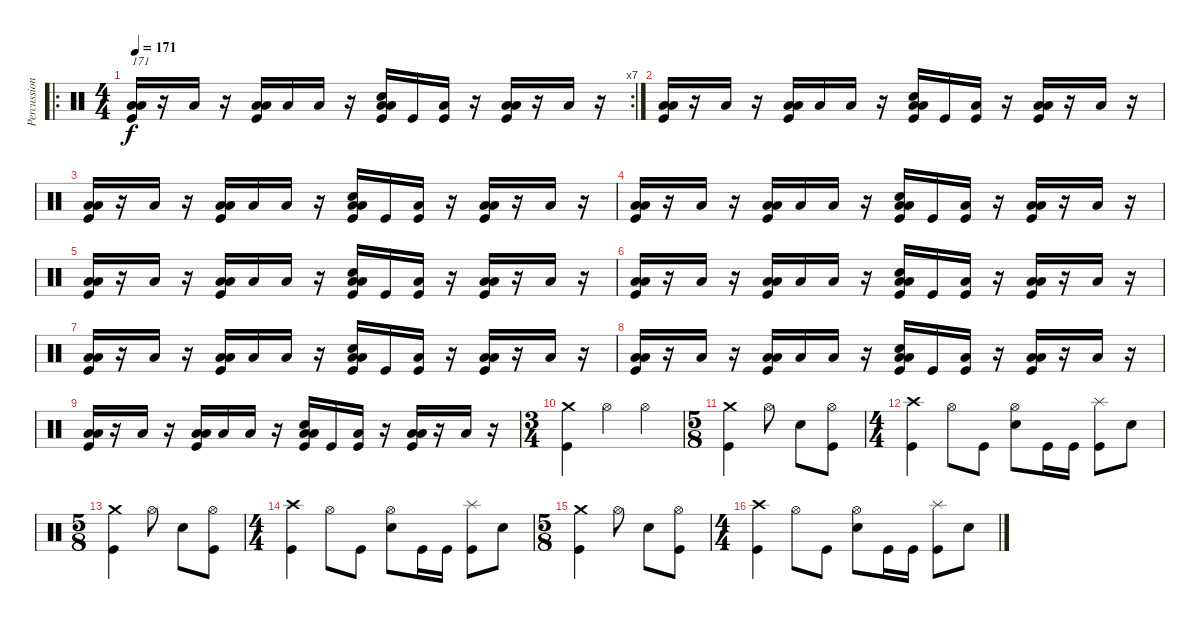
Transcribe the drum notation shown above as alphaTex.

\track ("Percussions" "Percussion") {instrument percussion}
\staff {score}
\articulation defaults
\ro
\rc 7
\ts (4 4)
\tempo 171
\clef neutral
\ks c
("Low Tom (hit)" "Low Floor Tom (hit)" "Kick (hit)").16{txt "171" dy f} r.16 "Low Tom (hit)".16 r.16 ("Low Tom (hit)" "Low Floor Tom (hit)" "Kick (hit)").16 "Low Tom (hit)".16 "Low Tom (hit)".16 r.16 ("Low Tom (hit)" "Snare (hit) 2" "Low Floor Tom (hit)" "Kick (hit)").16 "Kick (hit)".16 ("Low Tom (hit)" "Kick (hit)").16 r.16 ("Low Tom (hit)" "Low Floor Tom (hit)" "Kick (hit)").16 r.16 "Low Tom (hit)".16 r.16 |
("Low Tom (hit)" "Low Floor Tom (hit)" "Kick (hit)").16 r.16 "Low Tom (hit)".16 r.16 ("Low Tom (hit)" "Low Floor Tom (hit)" "Kick (hit)").16 "Low Tom (hit)".16 "Low Tom (hit)".16 r.16 ("Low Tom (hit)" "Snare (hit) 2" "Low Floor Tom (hit)" "Kick (hit)").16 "Kick (hit)".16 ("Low Tom (hit)" "Kick (hit)").16 r.16 ("Low Tom (hit)" "Low Floor Tom (hit)" "Kick (hit)").16 r.16 "Low Tom (hit)".16 r.16 |
("Low Tom (hit)" "Low Floor Tom (hit)" "Kick (hit)").16 r.16 "Low Tom (hit)".16 r.16 ("Low Tom (hit)" "Low Floor Tom (hit)" "Kick (hit)").16 "Low Tom (hit)".16 "Low Tom (hit)".16 r.16 ("Low Tom (hit)" "Snare (hit) 2" "Low Floor Tom (hit)" "Kick (hit)").16 "Kick (hit)".16 ("Low Tom (hit)" "Kick (hit)").16 r.16 ("Low Tom (hit)" "Low Floor Tom (hit)" "Kick (hit)").16 r.16 "Low Tom (hit)".16 r.16 |
("Low Tom (hit)" "Low Floor Tom (hit)" "Kick (hit)").16 r.16 "Low Tom (hit)".16 r.16 ("Low Tom (hit)" "Low Floor Tom (hit)" "Kick (hit)").16 "Low Tom (hit)".16 "Low Tom (hit)".16 r.16 ("Low Tom (hit)" "Snare (hit) 2" "Low Floor Tom (hit)" "Kick (hit)").16 "Kick (hit)".16 ("Low Tom (hit)" "Kick (hit)").16 r.16 ("Low Tom (hit)" "Low Floor Tom (hit)" "Kick (hit)").16 r.16 "Low Tom (hit)".16 r.16 |
("Low Tom (hit)" "Low Floor Tom (hit)" "Kick (hit)").16 r.16 "Low Tom (hit)".16 r.16 ("Low Tom (hit)" "Low Floor Tom (hit)" "Kick (hit)").16 "Low Tom (hit)".16 "Low Tom (hit)".16 r.16 ("Low Tom (hit)" "Snare (hit) 2" "Low Floor Tom (hit)" "Kick (hit)").16 "Kick (hit)".16 ("Low Tom (hit)" "Kick (hit)").16 r.16 ("Low Tom (hit)" "Low Floor Tom (hit)" "Kick (hit)").16 r.16 "Low Tom (hit)".16 r.16 |
("Low Tom (hit)" "Low Floor Tom (hit)" "Kick (hit)").16 r.16 "Low Tom (hit)".16 r.16 ("Low Tom (hit)" "Low Floor Tom (hit)" "Kick (hit)").16 "Low Tom (hit)".16 "Low Tom (hit)".16 r.16 ("Low Tom (hit)" "Snare (hit) 2" "Low Floor Tom (hit)" "Kick (hit)").16 "Kick (hit)".16 ("Low Tom (hit)" "Kick (hit)").16 r.16 ("Low Tom (hit)" "Low Floor Tom (hit)" "Kick (hit)").16 r.16 "Low Tom (hit)".16 r.16 |
("Low Tom (hit)" "Low Floor Tom (hit)" "Kick (hit)").16 r.16 "Low Tom (hit)".16 r.16 ("Low Tom (hit)" "Low Floor Tom (hit)" "Kick (hit)").16 "Low Tom (hit)".16 "Low Tom (hit)".16 r.16 ("Low Tom (hit)" "Snare (hit) 2" "Low Floor Tom (hit)" "Kick (hit)").16 "Kick (hit)".16 ("Low Tom (hit)" "Kick (hit)").16 r.16 ("Low Tom (hit)" "Low Floor Tom (hit)" "Kick (hit)").16 r.16 "Low Tom (hit)".16 r.16 |
("Low Tom (hit)" "Low Floor Tom (hit)" "Kick (hit)").16 r.16 "Low Tom (hit)".16 r.16 ("Low Tom (hit)" "Low Floor Tom (hit)" "Kick (hit)").16 "Low Tom (hit)".16 "Low Tom (hit)".16 r.16 ("Low Tom (hit)" "Snare (hit) 2" "Low Floor Tom (hit)" "Kick (hit)").16 "Kick (hit)".16 ("Low Tom (hit)" "Kick (hit)").16 r.16 ("Low Tom (hit)" "Low Floor Tom (hit)" "Kick (hit)").16 r.16 "Low Tom (hit)".16 r.16 |
("Low Tom (hit)" "Low Floor Tom (hit)" "Kick (hit)").16 r.16 "Low Tom (hit)".16 r.16 ("Low Tom (hit)" "Low Floor Tom (hit)" "Kick (hit)").16 "Low Tom (hit)".16 "Low Tom (hit)".16 r.16 ("Low Tom (hit)" "Snare (hit) 2" "Low Floor Tom (hit)" "Kick (hit)").16 "Kick (hit)".16 ("Low Tom (hit)" "Kick (hit)").16 r.16 ("Low Tom (hit)" "Low Floor Tom (hit)" "Kick (hit)").16 r.16 "Low Tom (hit)".16 r.16 |
\ts (3 4)
("Crash medium (hit)" "Kick (hit)").4 "Hi-Hat (open)".4 "Hi-Hat (open)".4 |
\ts (5 8)
("Crash medium (hit)" "Kick (hit)").4 "Hi-Hat (open)".8 "Snare (hit) 2".8 ("Hi-Hat (open)" "Kick (hit)").8 |
\ts (4 4)
("Crash high (hit)" "Kick (hit)").4 "Hi-Hat (open)".8 "Kick (hit)".8 ("Hi-Hat (open)" "Snare (hit) 2").8 "Kick (hit)".16 "Kick (hit)".16 ("Splash (hit)" "Kick (hit)").8 "Snare (hit) 2".8 |
\ts (5 8)
("Crash medium (hit)" "Kick (hit)").4 "Hi-Hat (open)".8 "Snare (hit) 2".8 ("Hi-Hat (open)" "Kick (hit)").8 |
\ts (4 4)
("Crash high (hit)" "Kick (hit)").4 "Hi-Hat (open)".8 "Kick (hit)".8 ("Hi-Hat (open)" "Snare (hit) 2").8 "Kick (hit)".16 "Kick (hit)".16 ("Splash (hit)" "Kick (hit)").8 "Snare (hit) 2".8 |
\ts (5 8)
("Crash medium (hit)" "Kick (hit)").4 "Hi-Hat (open)".8 "Snare (hit) 2".8 ("Hi-Hat (open)" "Kick (hit)").8 |
\ts (4 4)
("Crash high (hit)" "Kick (hit)").4 "Hi-Hat (open)".8 "Kick (hit)".8 ("Hi-Hat (open)" "Snare (hit) 2").8 "Kick (hit)".16 "Kick (hit)".16 ("Splash (hit)" "Kick (hit)").8 "Snare (hit) 2".8
